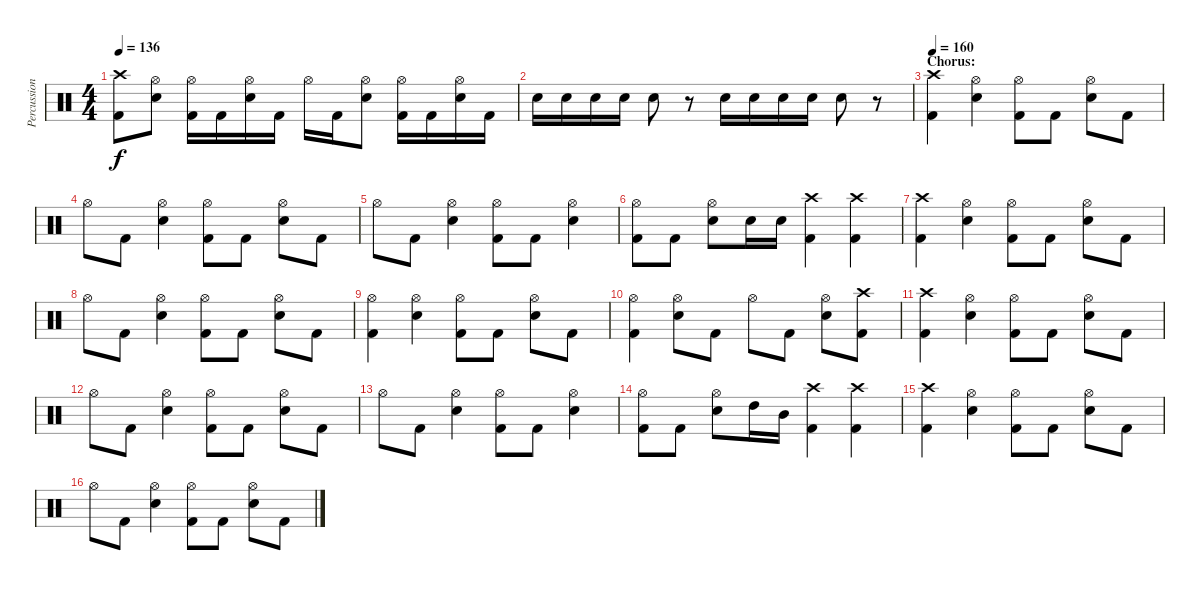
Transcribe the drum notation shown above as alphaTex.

\track ("Percussion" "Percussion") {instrument percussion}
\staff {score}
\articulation defaults
\ts (4 4)
\tempo 136
\clef neutral
\ks c
("Crash high (hit)"{t} "Kick (hit) 2"{t}).8{dy f} ("Hi-Hat (open)" "Electric Snare (hit)").8 ("Hi-Hat (open)" "Kick (hit) 2").16 "Kick (hit) 2".16 ("Hi-Hat (open)" "Electric Snare (hit)").16 "Kick (hit) 2".16 "Hi-Hat (open)".16 "Kick (hit) 2".16 ("Hi-Hat (open)" "Electric Snare (hit)").8 ("Hi-Hat (open)" "Kick (hit) 2").16 "Kick (hit) 2".16 ("Hi-Hat (open)" "Electric Snare (hit)").16 "Kick (hit) 2".16 |
"Electric Snare (hit)".16 "Electric Snare (hit)".16 "Electric Snare (hit)".16 "Electric Snare (hit)".16 "Electric Snare (hit)".8 r.8 "Electric Snare (hit)".16 "Electric Snare (hit)".16 "Electric Snare (hit)".16 "Electric Snare (hit)".16 "Electric Snare (hit)".8 r.8 |
\section ("" "Chorus:")
\tempo 160
("Crash high (hit)" "Kick (hit) 2").4 ("Hi-Hat (open)" "Electric Snare (hit)").4 ("Hi-Hat (open)" "Kick (hit) 2").8 "Kick (hit) 2".8 ("Hi-Hat (open)" "Electric Snare (hit)").8 "Kick (hit) 2".8 |
"Hi-Hat (open)".8 "Kick (hit) 2".8 ("Hi-Hat (open)" "Electric Snare (hit)").4 ("Hi-Hat (open)" "Kick (hit) 2").8 "Kick (hit) 2".8 ("Hi-Hat (open)" "Electric Snare (hit)").8 "Kick (hit) 2".8 |
"Hi-Hat (open)".8 "Kick (hit) 2".8 ("Hi-Hat (open)" "Electric Snare (hit)").4 ("Hi-Hat (open)" "Kick (hit) 2").8 "Kick (hit) 2".8 ("Hi-Hat (open)" "Electric Snare (hit)").4 |
("Hi-Hat (open)" "Kick (hit) 2").8 "Kick (hit) 2".8 ("Hi-Hat (open)" "Electric Snare (hit)").8 "Electric Snare (hit)".16 "Electric Snare (hit)".16 ("Crash high (hit)" "Kick (hit) 2").4 ("Crash high (hit)" "Kick (hit) 2").4 |
("Crash high (hit)" "Kick (hit) 2").4 ("Hi-Hat (open)" "Electric Snare (hit)").4 ("Hi-Hat (open)" "Kick (hit) 2").8 "Kick (hit) 2".8 ("Hi-Hat (open)" "Electric Snare (hit)").8 "Kick (hit) 2".8 |
"Hi-Hat (open)".8 "Kick (hit) 2".8 ("Hi-Hat (open)" "Electric Snare (hit)").4 ("Hi-Hat (open)" "Kick (hit) 2").8 "Kick (hit) 2".8 ("Hi-Hat (open)" "Electric Snare (hit)").8 "Kick (hit) 2".8 |
("Hi-Hat (open)" "Kick (hit) 2").4 ("Hi-Hat (open)" "Electric Snare (hit)").4 ("Hi-Hat (open)" "Kick (hit) 2").8 "Kick (hit) 2".8 ("Hi-Hat (open)" "Electric Snare (hit)").8 "Kick (hit) 2".8 |
("Hi-Hat (open)" "Kick (hit) 2").4 ("Hi-Hat (open)" "Electric Snare (hit)").8 "Kick (hit) 2".8 "Hi-Hat (open)".8 "Kick (hit) 2".8 ("Hi-Hat (open)" "Electric Snare (hit)").8 ("Crash high (hit)" "Kick (hit) 2").8 |
("Crash high (hit)" "Kick (hit) 2").4 ("Hi-Hat (open)" "Electric Snare (hit)").4 ("Hi-Hat (open)" "Kick (hit) 2").8 "Kick (hit) 2".8 ("Hi-Hat (open)" "Electric Snare (hit)").8 "Kick (hit) 2".8 |
"Hi-Hat (open)".8 "Kick (hit) 2".8 ("Hi-Hat (open)" "Electric Snare (hit)").4 ("Hi-Hat (open)" "Kick (hit) 2").8 "Kick (hit) 2".8 ("Hi-Hat (open)" "Electric Snare (hit)").8 "Kick (hit) 2".8 |
"Hi-Hat (open)".8 "Kick (hit) 2".8 ("Hi-Hat (open)" "Electric Snare (hit)").4 ("Hi-Hat (open)" "Kick (hit) 2").8 "Kick (hit) 2".8 ("Hi-Hat (open)" "Electric Snare (hit)").4 |
("Hi-Hat (open)" "Kick (hit) 2").8 "Kick (hit) 2".8 ("Hi-Hat (open)" "Electric Snare (hit)").8 "High Tom (hit)".16 "Mid Tom (hit)".16 ("Crash high (hit)" "Kick (hit) 2").4 ("Crash high (hit)" "Kick (hit) 2").4 |
("Crash high (hit)" "Kick (hit) 2").4 ("Hi-Hat (open)" "Electric Snare (hit)").4 ("Hi-Hat (open)" "Kick (hit) 2").8 "Kick (hit) 2".8 ("Hi-Hat (open)" "Electric Snare (hit)").8 "Kick (hit) 2".8 |
"Hi-Hat (open)".8 "Kick (hit) 2".8 ("Hi-Hat (open)" "Electric Snare (hit)").4 ("Hi-Hat (open)" "Kick (hit) 2").8 "Kick (hit) 2".8 ("Hi-Hat (open)" "Electric Snare (hit)").8 "Kick (hit) 2".8
